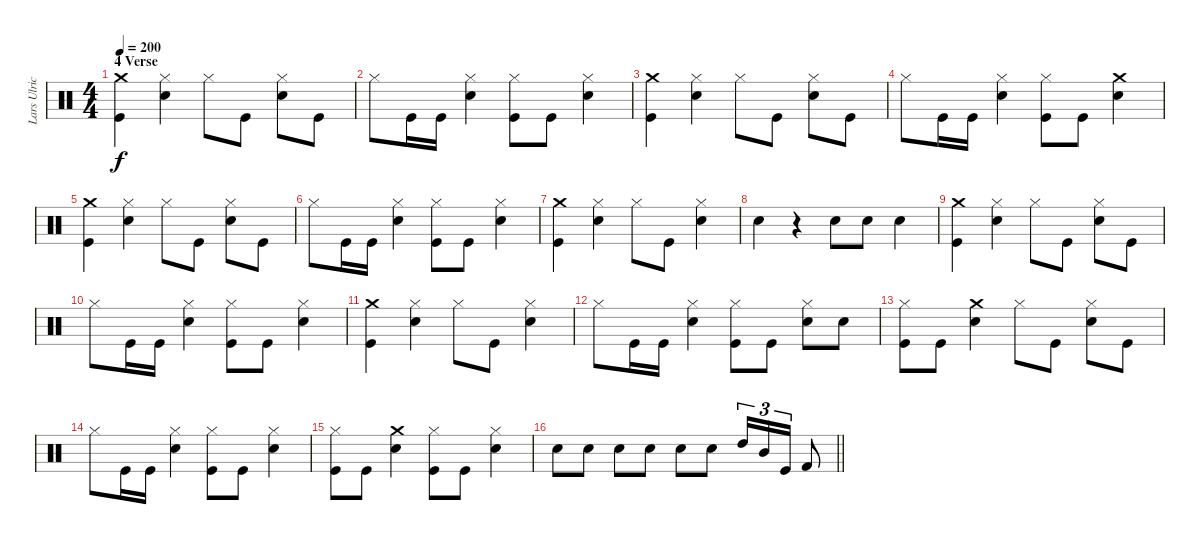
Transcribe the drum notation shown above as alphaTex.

\track ("Lars Ulrich (Drums)" "Lars Ulric") {instrument percussion}
\staff {score}
\articulation defaults
\ts (4 4)
\section ("" "4 Verse")
\tempo 200
\clef neutral
\ks c
("Kick (hit)" "Crash medium (hit)").4{dy f} ("Snare (hit) 2" "Hi-Hat (closed)").4 "Hi-Hat (closed)".8 "Kick (hit)".8 ("Snare (hit) 2" "Hi-Hat (closed)").8 "Kick (hit)".8 |
"Hi-Hat (closed)".8 "Kick (hit)".16 "Kick (hit)".16 ("Snare (hit) 2" "Hi-Hat (closed)").4 ("Kick (hit)" "Hi-Hat (closed)").8 "Kick (hit)".8 ("Snare (hit) 2" "Hi-Hat (closed)").4 |
("Kick (hit)" "Crash medium (hit)").4 ("Hi-Hat (closed)" "Snare (hit) 2").4 "Hi-Hat (closed)".8 "Kick (hit)".8 ("Snare (hit) 2" "Hi-Hat (closed)").8 "Kick (hit)".8 |
"Hi-Hat (closed)".8 "Kick (hit)".16 "Kick (hit)".16 ("Snare (hit) 2" "Hi-Hat (closed)").4 ("Kick (hit)" "Hi-Hat (closed)").8 "Kick (hit)".8 ("Crash medium (hit)" "Snare (hit) 2").4 |
("Kick (hit)" "Crash medium (hit)").4 ("Hi-Hat (closed)" "Snare (hit) 2").4 "Hi-Hat (closed)".8 "Kick (hit)".8 ("Snare (hit) 2" "Hi-Hat (closed)").8 "Kick (hit)".8 |
"Hi-Hat (closed)".8 "Kick (hit)".16 "Kick (hit)".16 ("Snare (hit) 2" "Hi-Hat (closed)").4 ("Kick (hit)" "Hi-Hat (closed)").8 "Kick (hit)".8 ("Snare (hit) 2" "Hi-Hat (closed)").4 |
("Kick (hit)" "Crash medium (hit)").4 ("Hi-Hat (closed)" "Snare (hit) 2").4 "Hi-Hat (closed)".8 "Kick (hit)".8 ("Snare (hit) 2" "Hi-Hat (closed)").4 |
"Snare (hit) 2".4 r.4 "Snare (hit) 2".8 "Snare (hit) 2".8 "Snare (hit) 2".4 |
("Kick (hit)" "Crash medium (hit)").4 ("Hi-Hat (closed)" "Snare (hit) 2").4 "Hi-Hat (closed)".8 "Kick (hit)".8 ("Snare (hit) 2" "Hi-Hat (closed)").8 "Kick (hit)".8 |
"Hi-Hat (closed)".8 "Kick (hit)".16 "Kick (hit)".16 ("Snare (hit) 2" "Hi-Hat (closed)").4 ("Kick (hit)" "Hi-Hat (closed)").8 "Kick (hit)".8 ("Snare (hit) 2" "Hi-Hat (closed)").4 |
("Kick (hit)" "Crash medium (hit)").4 ("Hi-Hat (closed)" "Snare (hit) 2").4 "Hi-Hat (closed)".8 "Kick (hit)".8 ("Snare (hit) 2" "Hi-Hat (closed)").4 |
"Hi-Hat (closed)".8 "Kick (hit)".16 "Kick (hit)".16 ("Snare (hit) 2" "Hi-Hat (closed)").4 ("Kick (hit)" "Hi-Hat (closed)").8 "Kick (hit)".8 ("Snare (hit) 2" "Hi-Hat (closed)").8 "Snare (hit) 2".8 |
("Kick (hit)" "Hi-Hat (closed)").8 "Kick (hit)".8 ("Crash medium (hit)" "Snare (hit) 2").4 "Hi-Hat (closed)".8 "Kick (hit)".8 ("Snare (hit) 2" "Hi-Hat (closed)").8 "Kick (hit)".8 |
"Hi-Hat (closed)".8 "Kick (hit)".16 "Kick (hit)".16 ("Snare (hit) 2" "Hi-Hat (closed)").4 ("Kick (hit)" "Hi-Hat (closed)").8 "Kick (hit)".8 ("Snare (hit) 2" "Hi-Hat (closed)").4 |
("Kick (hit)" "Hi-Hat (closed)").8 "Kick (hit)".8 ("Snare (hit) 2" "Crash medium (hit)").4 ("Kick (hit)" "Hi-Hat (closed)").8 "Kick (hit)".8 ("Snare (hit) 2" "Hi-Hat (closed)").4 |
\barLineRight lightlight "Snare (hit) 2".8 "Snare (hit) 2".8 "Snare (hit) 2".8 "Snare (hit) 2".8 "Snare (hit) 2".8 "Snare (hit) 2".8 "High Tom (hit)".16{tu (3 2)} "Mid Tom (hit)".16{tu (3 2)} "Kick (hit)".16{tu (3 2)} "Kick (hit) 2".8
